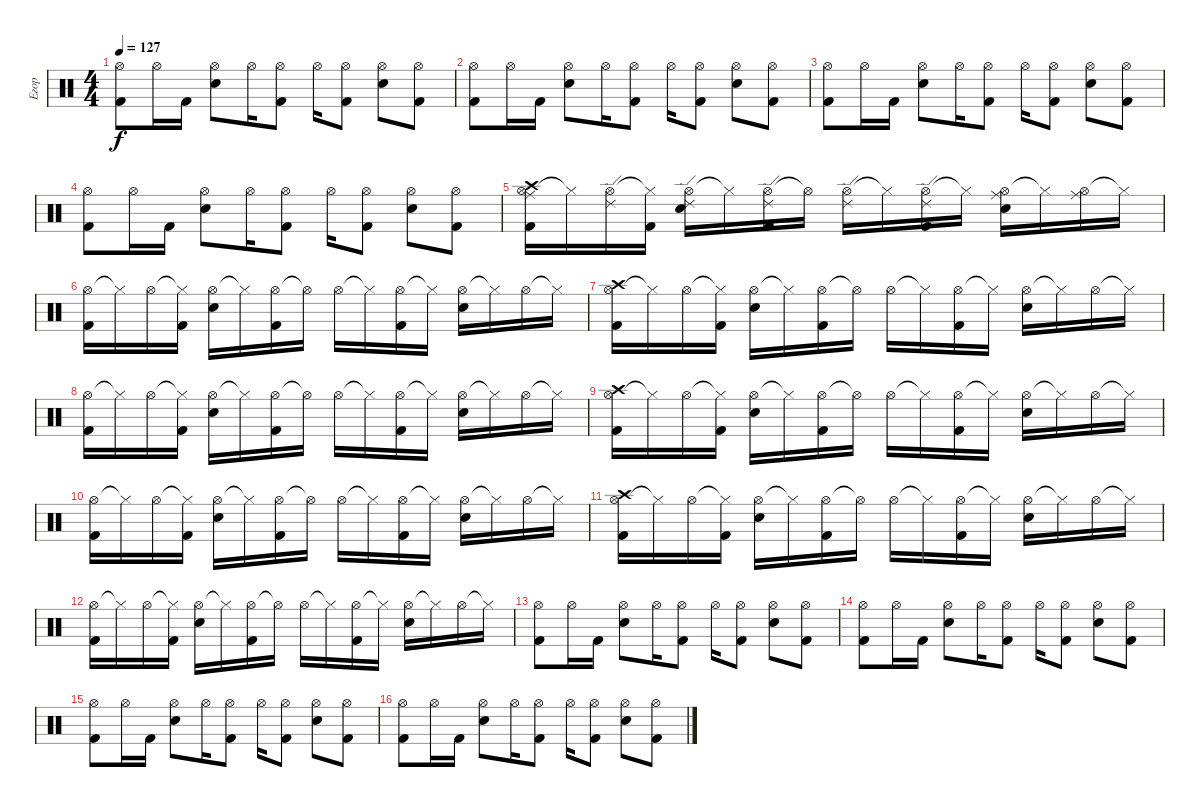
\track ("Егор" "Егор") {instrument percussion}
\staff {score}
\articulation defaults
\ts (4 4)
\tempo 127
\clef neutral
\ks c
("Hi-Hat (open)" "Kick (hit) 2").8{dy f} "Hi-Hat (open)".16 "Kick (hit) 2".16 ("Hi-Hat (open)" "Electric Snare (hit)").8 "Hi-Hat (open)".16 ("Hi-Hat (open)" "Kick (hit) 2").8 "Hi-Hat (open)".16 ("Hi-Hat (open)" "Kick (hit) 2").8 ("Hi-Hat (open)" "Electric Snare (hit)").8 ("Hi-Hat (open)" "Kick (hit) 2").8 |
("Hi-Hat (open)" "Kick (hit) 2").8 "Hi-Hat (open)".16 "Kick (hit) 2".16 ("Hi-Hat (open)" "Electric Snare (hit)").8 "Hi-Hat (open)".16 ("Hi-Hat (open)" "Kick (hit) 2").8 "Hi-Hat (open)".16 ("Hi-Hat (open)" "Kick (hit) 2").8 ("Hi-Hat (open)" "Electric Snare (hit)").8 ("Hi-Hat (open)" "Kick (hit) 2").8 |
("Hi-Hat (open)" "Kick (hit) 2").8 "Hi-Hat (open)".16 "Kick (hit) 2".16 ("Hi-Hat (open)" "Electric Snare (hit)").8 "Hi-Hat (open)".16 ("Hi-Hat (open)" "Kick (hit) 2").8 "Hi-Hat (open)".16 ("Hi-Hat (open)" "Kick (hit) 2").8 ("Hi-Hat (open)" "Electric Snare (hit)").8 ("Hi-Hat (open)" "Kick (hit) 2").8 |
("Hi-Hat (open)" "Kick (hit) 2").8 "Hi-Hat (open)".16 "Kick (hit) 2".16 ("Hi-Hat (open)" "Electric Snare (hit)").8 "Hi-Hat (open)".16 ("Hi-Hat (open)" "Kick (hit) 2").8 "Hi-Hat (open)".16 ("Hi-Hat (open)" "Kick (hit) 2").8 ("Hi-Hat (open)" "Electric Snare (hit)").8 ("Hi-Hat (open)" "Kick (hit) 2").8 |
("Hi-Hat (open)" "Ride (middle)" "Crash high (hit)" "Kick (hit) 2").16 "Hi-Hat (closed)"{t}.16 ("Hi-Hat (open)" "Ride (edge) 2").16 ("Hi-Hat (closed)"{t} "Kick (hit) 2").16 ("Hi-Hat (open)" "Ride (edge) 2" "Electric Snare (hit)").16 "Hi-Hat (closed)"{t}.16 ("Hi-Hat (open)" "Ride (edge) 2" "Kick (hit) 2").16 "Hi-Hat (open)"{t}.16 ("Hi-Hat (open)" "Ride (edge) 2").16 "Hi-Hat (closed)"{t}.16 ("Hi-Hat (open)" "Ride (edge) 2" "Kick (hit) 2").16 "Hi-Hat (closed)"{t}.16 ("Hi-Hat (open)" "Ride (middle)" "Electric Snare (hit)").16 "Hi-Hat (closed)"{t}.16 ("Hi-Hat (open)" "Ride (middle)").16 "Hi-Hat (closed)"{t}.16 |
("Hi-Hat (open)" "Kick (hit) 2").16 "Hi-Hat (closed)"{t}.16 "Hi-Hat (open)".16 ("Hi-Hat (closed)"{t} "Kick (hit) 2").16 ("Hi-Hat (open)" "Electric Snare (hit)").16 "Hi-Hat (closed)"{t}.16 ("Hi-Hat (open)" "Kick (hit) 2").16 "Hi-Hat (open)"{t}.16 "Hi-Hat (open)".16 "Hi-Hat (closed)"{t}.16 ("Hi-Hat (open)" "Kick (hit) 2").16 "Hi-Hat (closed)"{t}.16 ("Hi-Hat (open)" "Electric Snare (hit)").16 "Hi-Hat (closed)"{t}.16 "Hi-Hat (open)".16 "Hi-Hat (closed)"{t}.16 |
("Hi-Hat (open)" "Crash high (hit)" "Kick (hit) 2").16 "Hi-Hat (closed)"{t}.16 "Hi-Hat (open)".16 ("Hi-Hat (closed)"{t} "Kick (hit) 2").16 ("Hi-Hat (open)" "Electric Snare (hit)").16 "Hi-Hat (closed)"{t}.16 ("Hi-Hat (open)" "Kick (hit) 2").16 "Hi-Hat (open)"{t}.16 "Hi-Hat (open)".16 "Hi-Hat (closed)"{t}.16 ("Hi-Hat (open)" "Kick (hit) 2").16 "Hi-Hat (closed)"{t}.16 ("Hi-Hat (open)" "Electric Snare (hit)").16 "Hi-Hat (closed)"{t}.16 "Hi-Hat (open)".16 "Hi-Hat (closed)"{t}.16 |
("Hi-Hat (open)" "Kick (hit) 2").16 "Hi-Hat (closed)"{t}.16 "Hi-Hat (open)".16 ("Hi-Hat (closed)"{t} "Kick (hit) 2").16 ("Hi-Hat (open)" "Electric Snare (hit)").16 "Hi-Hat (closed)"{t}.16 ("Hi-Hat (open)" "Kick (hit) 2").16 "Hi-Hat (open)"{t}.16 "Hi-Hat (open)".16 "Hi-Hat (closed)"{t}.16 ("Hi-Hat (open)" "Kick (hit) 2").16 "Hi-Hat (closed)"{t}.16 ("Hi-Hat (open)" "Electric Snare (hit)").16 "Hi-Hat (closed)"{t}.16 "Hi-Hat (open)".16 "Hi-Hat (closed)"{t}.16 |
("Hi-Hat (open)" "Crash high (hit)" "Kick (hit) 2").16 "Hi-Hat (closed)"{t}.16 "Hi-Hat (open)".16 ("Hi-Hat (closed)"{t} "Kick (hit) 2").16 ("Hi-Hat (open)" "Electric Snare (hit)").16 "Hi-Hat (closed)"{t}.16 ("Hi-Hat (open)" "Kick (hit) 2").16 "Hi-Hat (open)"{t}.16 "Hi-Hat (open)".16 "Hi-Hat (closed)"{t}.16 ("Hi-Hat (open)" "Kick (hit) 2").16 "Hi-Hat (closed)"{t}.16 ("Hi-Hat (open)" "Electric Snare (hit)").16 "Hi-Hat (closed)"{t}.16 "Hi-Hat (open)".16 "Hi-Hat (closed)"{t}.16 |
("Hi-Hat (open)" "Kick (hit) 2").16 "Hi-Hat (closed)"{t}.16 "Hi-Hat (open)".16 ("Hi-Hat (closed)"{t} "Kick (hit) 2").16 ("Hi-Hat (open)" "Electric Snare (hit)").16 "Hi-Hat (closed)"{t}.16 ("Hi-Hat (open)" "Kick (hit) 2").16 "Hi-Hat (open)"{t}.16 "Hi-Hat (open)".16 "Hi-Hat (closed)"{t}.16 ("Hi-Hat (open)" "Kick (hit) 2").16 "Hi-Hat (closed)"{t}.16 ("Hi-Hat (open)" "Electric Snare (hit)").16 "Hi-Hat (closed)"{t}.16 "Hi-Hat (open)".16 "Hi-Hat (closed)"{t}.16 |
("Hi-Hat (open)" "Crash high (hit)" "Kick (hit) 2").16 "Hi-Hat (closed)"{t}.16 "Hi-Hat (open)".16 ("Hi-Hat (closed)"{t} "Kick (hit) 2").16 ("Hi-Hat (open)" "Electric Snare (hit)").16 "Hi-Hat (closed)"{t}.16 ("Hi-Hat (open)" "Kick (hit) 2").16 "Hi-Hat (open)"{t}.16 "Hi-Hat (open)".16 "Hi-Hat (closed)"{t}.16 ("Hi-Hat (open)" "Kick (hit) 2").16 "Hi-Hat (closed)"{t}.16 ("Hi-Hat (open)" "Electric Snare (hit)").16 "Hi-Hat (closed)"{t}.16 "Hi-Hat (open)".16 "Hi-Hat (closed)"{t}.16 |
("Hi-Hat (open)" "Kick (hit) 2").16 "Hi-Hat (closed)"{t}.16 "Hi-Hat (open)".16 ("Hi-Hat (closed)"{t} "Kick (hit) 2").16 ("Hi-Hat (open)" "Electric Snare (hit)").16 "Hi-Hat (closed)"{t}.16 ("Hi-Hat (open)" "Kick (hit) 2").16 "Hi-Hat (open)"{t}.16 "Hi-Hat (open)".16 "Hi-Hat (closed)"{t}.16 ("Hi-Hat (open)" "Kick (hit) 2").16 "Hi-Hat (closed)"{t}.16 ("Hi-Hat (open)" "Electric Snare (hit)").16 "Hi-Hat (closed)"{t}.16 "Hi-Hat (open)".16 "Hi-Hat (closed)"{t}.16 |
("Hi-Hat (open)" "Kick (hit) 2").8 "Hi-Hat (open)".16 "Kick (hit) 2".16 ("Hi-Hat (open)" "Electric Snare (hit)").8 "Hi-Hat (open)".16 ("Hi-Hat (open)" "Kick (hit) 2").8 "Hi-Hat (open)".16 ("Hi-Hat (open)" "Kick (hit) 2").8 ("Hi-Hat (open)" "Electric Snare (hit)").8 ("Hi-Hat (open)" "Kick (hit) 2").8 |
("Hi-Hat (open)" "Kick (hit) 2").8 "Hi-Hat (open)".16 "Kick (hit) 2".16 ("Hi-Hat (open)" "Electric Snare (hit)").8 "Hi-Hat (open)".16 ("Hi-Hat (open)" "Kick (hit) 2").8 "Hi-Hat (open)".16 ("Hi-Hat (open)" "Kick (hit) 2").8 ("Hi-Hat (open)" "Electric Snare (hit)").8 ("Hi-Hat (open)" "Kick (hit) 2").8 |
("Hi-Hat (open)" "Kick (hit) 2").8 "Hi-Hat (open)".16 "Kick (hit) 2".16 ("Hi-Hat (open)" "Electric Snare (hit)").8 "Hi-Hat (open)".16 ("Hi-Hat (open)" "Kick (hit) 2").8 "Hi-Hat (open)".16 ("Hi-Hat (open)" "Kick (hit) 2").8 ("Hi-Hat (open)" "Electric Snare (hit)").8 ("Hi-Hat (open)" "Kick (hit) 2").8 |
("Hi-Hat (open)" "Kick (hit) 2").8 "Hi-Hat (open)".16 "Kick (hit) 2".16 ("Hi-Hat (open)" "Electric Snare (hit)").8 "Hi-Hat (open)".16 ("Hi-Hat (open)" "Kick (hit) 2").8 "Hi-Hat (open)".16 ("Hi-Hat (open)" "Kick (hit) 2").8 ("Hi-Hat (open)" "Electric Snare (hit)").8 ("Hi-Hat (open)" "Kick (hit) 2").8
